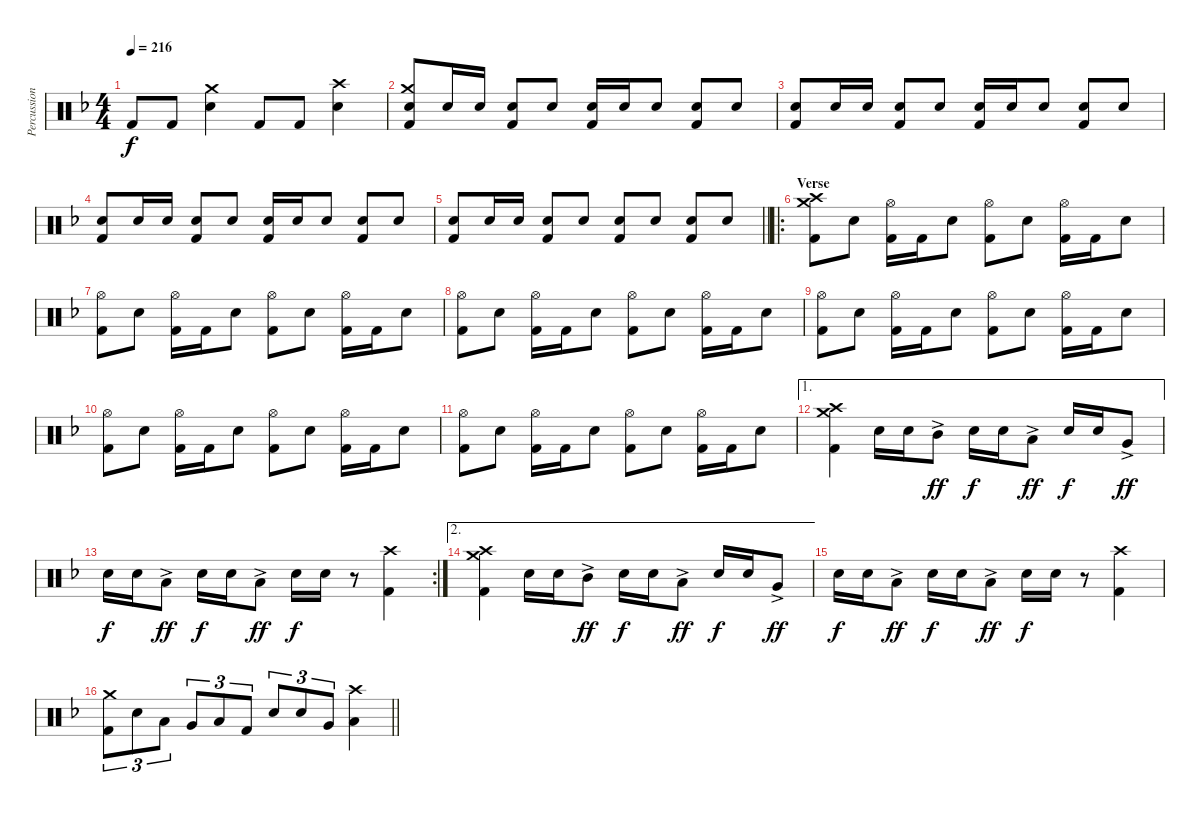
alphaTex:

\track ("Percussion" "Percussion") {instrument percussion}
\staff {score}
\articulation defaults
\ts (4 4)
\tempo 216
\clef neutral
\ks f "Kick (hit) 2".8{dy f} "Kick (hit) 2".8
("Crash medium (hit)" "Electric Snare (hit)").4 "Kick (hit) 2".8 "Kick (hit) 2".8 ("Crash high (hit)" "Electric Snare (hit)").4 |
("Crash medium (hit)" "Electric Snare (hit)" "Kick (hit) 2").8 "Electric Snare (hit)".16 "Electric Snare (hit)".16 ("Electric Snare (hit)" "Kick (hit) 2").8 "Electric Snare (hit)".8 ("Electric Snare (hit)" "Kick (hit) 2").16 "Electric Snare (hit)".16 "Electric Snare (hit)".8 ("Electric Snare (hit)" "Kick (hit) 2").8 "Electric Snare (hit)".8 |
("Electric Snare (hit)" "Kick (hit) 2").8 "Electric Snare (hit)".16 "Electric Snare (hit)".16 ("Electric Snare (hit)" "Kick (hit) 2").8 "Electric Snare (hit)".8 ("Electric Snare (hit)" "Kick (hit) 2").16 "Electric Snare (hit)".16 "Electric Snare (hit)".8 ("Electric Snare (hit)" "Kick (hit) 2").8 "Electric Snare (hit)".8 |
("Electric Snare (hit)" "Kick (hit) 2").8 "Electric Snare (hit)".16 "Electric Snare (hit)".16 ("Electric Snare (hit)" "Kick (hit) 2").8 "Electric Snare (hit)".8 ("Electric Snare (hit)" "Kick (hit) 2").16 "Electric Snare (hit)".16 "Electric Snare (hit)".8 ("Electric Snare (hit)" "Kick (hit) 2").8 "Electric Snare (hit)".8 |
\barLineRight lightlight
("Electric Snare (hit)" "Kick (hit) 2").8 "Electric Snare (hit)".16 "Electric Snare (hit)".16 ("Electric Snare (hit)" "Kick (hit) 2").8 "Electric Snare (hit)".8 ("Electric Snare (hit)" "Kick (hit) 2").8 "Electric Snare (hit)".8 ("Electric Snare (hit)" "Kick (hit) 2").8 "Electric Snare (hit)".8 |
\ro
\section ("" "Verse")
("Crash medium (hit)" "Crash high (hit)" "Kick (hit) 2").8 "Electric Snare (hit)".8 ("Hi-Hat (open)" "Kick (hit) 2").16 "Kick (hit) 2".16 "Electric Snare (hit)".8 ("Hi-Hat (open)" "Kick (hit) 2").8 "Electric Snare (hit)".8 ("Hi-Hat (open)" "Kick (hit) 2").16 "Kick (hit) 2".16 "Electric Snare (hit)".8 |
("Hi-Hat (open)" "Kick (hit) 2").8 "Electric Snare (hit)".8 ("Hi-Hat (open)" "Kick (hit) 2").16 "Kick (hit) 2".16 "Electric Snare (hit)".8 ("Hi-Hat (open)" "Kick (hit) 2").8 "Electric Snare (hit)".8 ("Hi-Hat (open)" "Kick (hit) 2").16 "Kick (hit) 2".16 "Electric Snare (hit)".8 |
("Hi-Hat (open)" "Kick (hit) 2").8 "Electric Snare (hit)".8 ("Hi-Hat (open)" "Kick (hit) 2").16 "Kick (hit) 2".16 "Electric Snare (hit)".8 ("Hi-Hat (open)" "Kick (hit) 2").8 "Electric Snare (hit)".8 ("Hi-Hat (open)" "Kick (hit) 2").16 "Kick (hit) 2".16 "Electric Snare (hit)".8 |
("Hi-Hat (open)" "Kick (hit) 2").8 "Electric Snare (hit)".8 ("Hi-Hat (open)" "Kick (hit) 2").16 "Kick (hit) 2".16 "Electric Snare (hit)".8 ("Hi-Hat (open)" "Kick (hit) 2").8 "Electric Snare (hit)".8 ("Hi-Hat (open)" "Kick (hit) 2").16 "Kick (hit) 2".16 "Electric Snare (hit)".8 |
("Hi-Hat (open)" "Kick (hit) 2").8 "Electric Snare (hit)".8 ("Hi-Hat (open)" "Kick (hit) 2").16 "Kick (hit) 2".16 "Electric Snare (hit)".8 ("Hi-Hat (open)" "Kick (hit) 2").8 "Electric Snare (hit)".8 ("Hi-Hat (open)" "Kick (hit) 2").16 "Kick (hit) 2".16 "Electric Snare (hit)".8 |
("Hi-Hat (open)" "Kick (hit) 2").8 "Electric Snare (hit)".8 ("Hi-Hat (open)" "Kick (hit) 2").16 "Kick (hit) 2".16 "Electric Snare (hit)".8 ("Hi-Hat (open)" "Kick (hit) 2").8 "Electric Snare (hit)".8 ("Hi-Hat (open)" "Kick (hit) 2").16 "Kick (hit) 2".16 "Electric Snare (hit)".8 |
\ae 1
("Crash medium (hit)" "Crash high (hit)" "Kick (hit) 2").4 "Electric Snare (hit)".16 "Electric Snare (hit)".16 "Mid Tom (hit)"{ac}.8{dy ff} "Electric Snare (hit)".16{dy f} "Electric Snare (hit)".16 "Low Tom (hit)"{ac}.8{dy ff} "Electric Snare (hit)".16{dy f} "Electric Snare (hit)".16 "Very Low Tom (hit)"{ac}.8{dy ff} |
\rc 2 "Electric Snare (hit)".16{dy f} "Electric Snare (hit)".16 "Low Floor Tom (hit)"{ac}.8{dy ff} "Electric Snare (hit)".16{dy f} "Electric Snare (hit)".16 "Low Floor Tom (hit)"{ac}.8{dy ff} "Electric Snare (hit)".16{dy f} "Electric Snare (hit)".16
r.8 ("Crash high (hit)" "Kick (hit) 2").4 |
\ae 2
("Crash medium (hit)" "Crash high (hit)" "Kick (hit) 2").4 "Electric Snare (hit)".16 "Electric Snare (hit)".16 "Mid Tom (hit)"{ac}.8{dy ff} "Electric Snare (hit)".16{dy f} "Electric Snare (hit)".16 "Low Tom (hit)"{ac}.8{dy ff} "Electric Snare (hit)".16{dy f} "Electric Snare (hit)".16 "Very Low Tom (hit)"{ac}.8{dy ff} |
"Electric Snare (hit)".16{dy f} "Electric Snare (hit)".16 "Low Floor Tom (hit)"{ac}.8{dy ff} "Electric Snare (hit)".16{dy f} "Electric Snare (hit)".16 "Low Floor Tom (hit)"{ac}.8{dy ff} "Electric Snare (hit)".16{dy f} "Electric Snare (hit)".16 r.8 ("Crash high (hit)" "Kick (hit) 2").4 |
\barLineRight lightlight
("Crash medium (hit)" "Kick (hit) 2").8{tu (3 2)} "Electric Snare (hit)".8{tu (3 2)} "Low Tom (hit)".8{tu (3 2)} "Very Low Tom (hit)".8{tu (3 2)} "Low Floor Tom (hit)".8{tu (3 2)} "Kick (hit) 2".8{tu (3 2)} "Electric Snare (hit)".8{tu (3 2)} "Electric Snare (hit)".8{tu (3 2)} "Very Low Tom (hit)".8{tu (3 2)} ("Crash high (hit)" "Low Floor Tom (hit)").4
